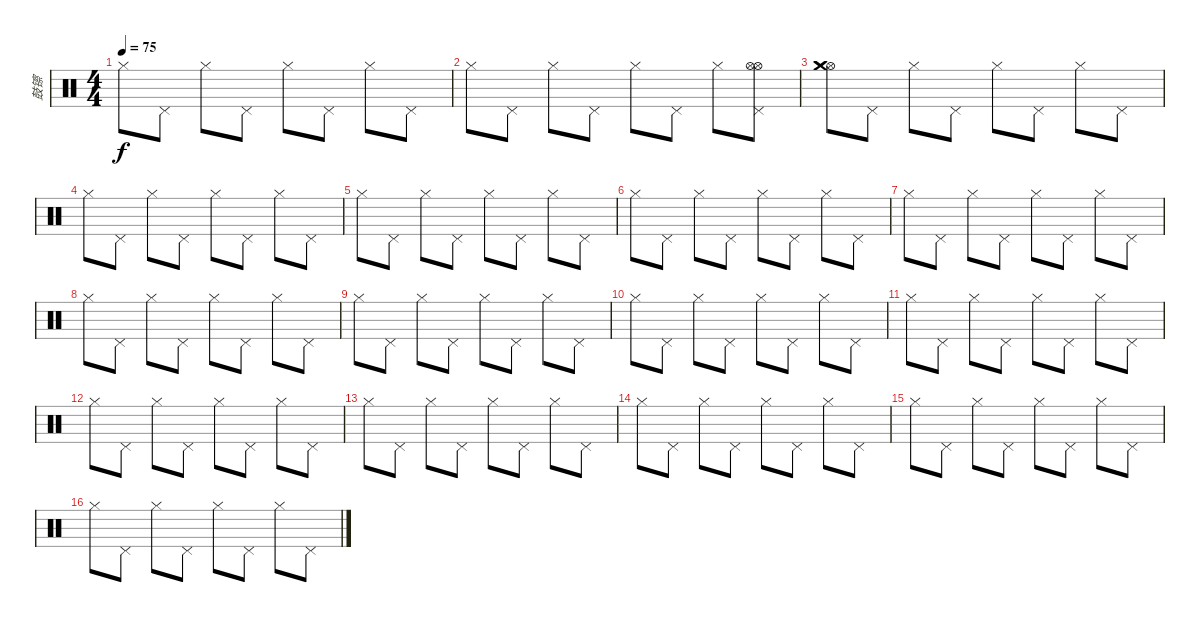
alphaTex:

\track ("鼓镲" "鼓镲") {instrument percussion}
\staff {score}
\articulation defaults
\ts (4 4)
\tempo 75
\clef neutral
\ks c "Hi-Hat (closed)".8{dy f} "Pedal Hi-Hat (hit)".8 "Hi-Hat (closed)".8 "Pedal Hi-Hat (hit)".8 "Hi-Hat (closed)".8 "Pedal Hi-Hat (hit)".8 "Hi-Hat (closed)".8 "Pedal Hi-Hat (hit)".8
|
"Hi-Hat (closed)".8 "Pedal Hi-Hat (hit)".8 "Hi-Hat (closed)".8 "Pedal Hi-Hat (hit)".8 "Hi-Hat (closed)".8 "Pedal Hi-Hat (hit)".8 "Hi-Hat (closed)".8 ("Pedal Hi-Hat (hit)" "Hi-Hat (open)" "Hi-Hat (open)").8 |
("Hi-Hat (open)" "Crash medium (hit)" "Crash medium (hit)").8 "Pedal Hi-Hat (hit)".8 "Hi-Hat (closed)".8 "Pedal Hi-Hat (hit)".8 "Hi-Hat (closed)".8 "Pedal Hi-Hat (hit)".8 "Hi-Hat (closed)".8 "Pedal Hi-Hat (hit)".8 |
"Hi-Hat (closed)".8 "Pedal Hi-Hat (hit)".8 "Hi-Hat (closed)".8 "Pedal Hi-Hat (hit)".8 "Hi-Hat (closed)".8 "Pedal Hi-Hat (hit)".8 "Hi-Hat (closed)".8 "Pedal Hi-Hat (hit)".8 |
"Hi-Hat (closed)".8 "Pedal Hi-Hat (hit)".8 "Hi-Hat (closed)".8 "Pedal Hi-Hat (hit)".8 "Hi-Hat (closed)".8 "Pedal Hi-Hat (hit)".8 "Hi-Hat (closed)".8 "Pedal Hi-Hat (hit)".8 |
"Hi-Hat (closed)".8 "Pedal Hi-Hat (hit)".8 "Hi-Hat (closed)".8 "Pedal Hi-Hat (hit)".8 "Hi-Hat (closed)".8 "Pedal Hi-Hat (hit)".8 "Hi-Hat (closed)".8 "Pedal Hi-Hat (hit)".8 |
"Hi-Hat (closed)".8 "Pedal Hi-Hat (hit)".8 "Hi-Hat (closed)".8 "Pedal Hi-Hat (hit)".8 "Hi-Hat (closed)".8 "Pedal Hi-Hat (hit)".8 "Hi-Hat (closed)".8 "Pedal Hi-Hat (hit)".8 |
"Hi-Hat (closed)".8 "Pedal Hi-Hat (hit)".8 "Hi-Hat (closed)".8 "Pedal Hi-Hat (hit)".8 "Hi-Hat (closed)".8 "Pedal Hi-Hat (hit)".8 "Hi-Hat (closed)".8 "Pedal Hi-Hat (hit)".8 |
"Hi-Hat (closed)".8 "Pedal Hi-Hat (hit)".8 "Hi-Hat (closed)".8 "Pedal Hi-Hat (hit)".8 "Hi-Hat (closed)".8 "Pedal Hi-Hat (hit)".8 "Hi-Hat (closed)".8 "Pedal Hi-Hat (hit)".8 |
"Hi-Hat (closed)".8 "Pedal Hi-Hat (hit)".8 "Hi-Hat (closed)".8 "Pedal Hi-Hat (hit)".8 "Hi-Hat (closed)".8 "Pedal Hi-Hat (hit)".8 "Hi-Hat (closed)".8 "Pedal Hi-Hat (hit)".8 |
"Hi-Hat (closed)".8 "Pedal Hi-Hat (hit)".8 "Hi-Hat (closed)".8 "Pedal Hi-Hat (hit)".8 "Hi-Hat (closed)".8 "Pedal Hi-Hat (hit)".8 "Hi-Hat (closed)".8 "Pedal Hi-Hat (hit)".8 |
"Hi-Hat (closed)".8 "Pedal Hi-Hat (hit)".8 "Hi-Hat (closed)".8 "Pedal Hi-Hat (hit)".8 "Hi-Hat (closed)".8 "Pedal Hi-Hat (hit)".8 "Hi-Hat (closed)".8 "Pedal Hi-Hat (hit)".8 |
"Hi-Hat (closed)".8 "Pedal Hi-Hat (hit)".8 "Hi-Hat (closed)".8 "Pedal Hi-Hat (hit)".8 "Hi-Hat (closed)".8 "Pedal Hi-Hat (hit)".8 "Hi-Hat (closed)".8 "Pedal Hi-Hat (hit)".8 |
"Hi-Hat (closed)".8 "Pedal Hi-Hat (hit)".8 "Hi-Hat (closed)".8 "Pedal Hi-Hat (hit)".8 "Hi-Hat (closed)".8 "Pedal Hi-Hat (hit)".8 "Hi-Hat (closed)".8 "Pedal Hi-Hat (hit)".8 |
"Hi-Hat (closed)".8 "Pedal Hi-Hat (hit)".8 "Hi-Hat (closed)".8 "Pedal Hi-Hat (hit)".8 "Hi-Hat (closed)".8 "Pedal Hi-Hat (hit)".8 "Hi-Hat (closed)".8 "Pedal Hi-Hat (hit)".8 |
"Hi-Hat (closed)".8 "Pedal Hi-Hat (hit)".8 "Hi-Hat (closed)".8 "Pedal Hi-Hat (hit)".8 "Hi-Hat (closed)".8 "Pedal Hi-Hat (hit)".8 "Hi-Hat (closed)".8 "Pedal Hi-Hat (hit)".8
